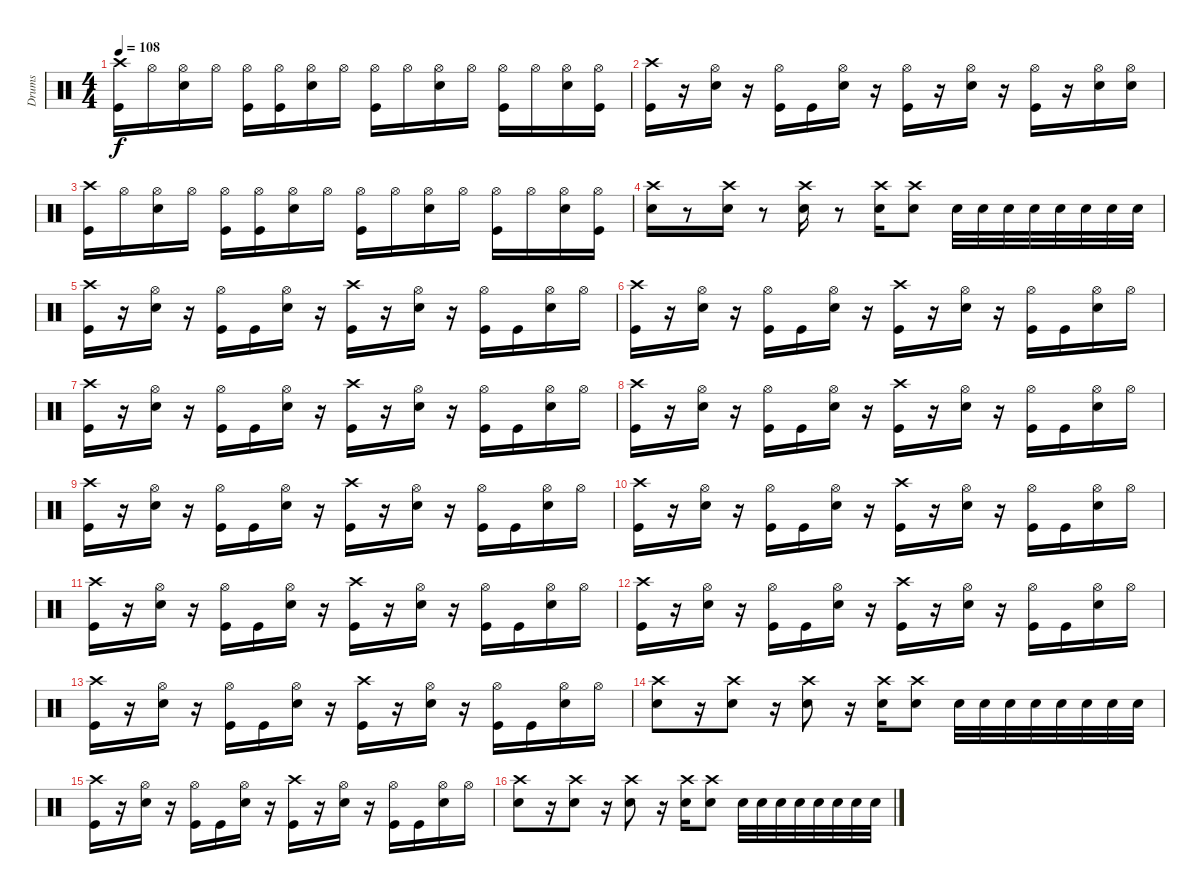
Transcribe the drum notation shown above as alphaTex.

\track ("Drums" "Drums") {instrument percussion}
\staff {score}
\articulation defaults
\ts (4 4)
\tempo 108
\clef neutral
\ks c
("Crash high (hit)" "Kick (hit)").16{dy f} "Hi-Hat (open)".16 ("Hi-Hat (open)" "Snare (hit) 2").16 "Hi-Hat (open)".16 ("Hi-Hat (open)" "Kick (hit)").16 ("Hi-Hat (open)" "Kick (hit)").16 ("Hi-Hat (open)" "Snare (hit) 2").16 "Hi-Hat (open)".16 ("Hi-Hat (open)" "Kick (hit)").16 "Hi-Hat (open)".16 ("Hi-Hat (open)" "Snare (hit) 2").16 "Hi-Hat (open)".16 ("Hi-Hat (open)" "Kick (hit)").16 "Hi-Hat (open)".16 ("Hi-Hat (open)" "Snare (hit) 2").16 ("Hi-Hat (open)" "Kick (hit)").16 |
("Crash high (hit)" "Kick (hit)").16 r.16 ("Hi-Hat (open)" "Snare (hit) 2").16 r.16 ("Hi-Hat (open)" "Kick (hit)").16 "Kick (hit)".16 ("Hi-Hat (open)" "Snare (hit) 2").16 r.16 ("Hi-Hat (open)" "Kick (hit)").16 r.16 ("Hi-Hat (open)" "Snare (hit) 2").16 r.16 ("Hi-Hat (open)" "Kick (hit)").16 r.16 ("Hi-Hat (open)" "Snare (hit) 2").16 ("Hi-Hat (open)" "Snare (hit) 2").16 |
("Crash high (hit)" "Kick (hit)").16 "Hi-Hat (open)".16 ("Hi-Hat (open)" "Snare (hit) 2").16 "Hi-Hat (open)".16 ("Hi-Hat (open)" "Kick (hit)").16 ("Hi-Hat (open)" "Kick (hit)").16 ("Hi-Hat (open)" "Snare (hit) 2").16 "Hi-Hat (open)".16 ("Hi-Hat (open)" "Kick (hit)").16 "Hi-Hat (open)".16 ("Hi-Hat (open)" "Snare (hit) 2").16 "Hi-Hat (open)".16 ("Hi-Hat (open)" "Kick (hit)").16 "Hi-Hat (open)".16 ("Hi-Hat (open)" "Snare (hit) 2").16 ("Hi-Hat (open)" "Kick (hit)").16 |
("Crash high (hit)" "Snare (hit) 2").16 r.8 ("Crash high (hit)" "Snare (hit) 2").16 r.8 ("Crash high (hit)" "Snare (hit) 2").16 r.8 ("Crash high (hit)" "Snare (hit) 2").16 ("Crash high (hit)" "Snare (hit) 2").8 "Snare (hit) 2".32 "Snare (hit) 2".32 "Snare (hit) 2".32 "Snare (hit) 2".32 "Snare (hit) 2".32 "Snare (hit) 2".32 "Snare (hit) 2".32 "Snare (hit) 2".32 |
("Crash high (hit)" "Kick (hit)").16 r.16 ("Hi-Hat (open)" "Snare (hit) 2").16 r.16 ("Hi-Hat (open)" "Kick (hit)").16 "Kick (hit)".16 ("Hi-Hat (open)" "Snare (hit) 2").16 r.16 ("Crash high (hit)" "Kick (hit)").16 r.16 ("Hi-Hat (open)" "Snare (hit) 2").16 r.16 ("Hi-Hat (open)" "Kick (hit)").16 "Kick (hit)".16 ("Hi-Hat (open)" "Snare (hit) 2").16 "Hi-Hat (open)".16 |
("Crash high (hit)" "Kick (hit)").16 r.16 ("Hi-Hat (open)" "Snare (hit) 2").16 r.16 ("Hi-Hat (open)" "Kick (hit)").16 "Kick (hit)".16 ("Hi-Hat (open)" "Snare (hit) 2").16 r.16 ("Crash high (hit)" "Kick (hit)").16 r.16 ("Hi-Hat (open)" "Snare (hit) 2").16 r.16 ("Hi-Hat (open)" "Kick (hit)").16 "Kick (hit)".16 ("Hi-Hat (open)" "Snare (hit) 2").16 "Hi-Hat (open)".16 |
("Crash high (hit)" "Kick (hit)").16 r.16 ("Hi-Hat (open)" "Snare (hit) 2").16 r.16 ("Hi-Hat (open)" "Kick (hit)").16 "Kick (hit)".16 ("Hi-Hat (open)" "Snare (hit) 2").16 r.16 ("Crash high (hit)" "Kick (hit)").16 r.16 ("Hi-Hat (open)" "Snare (hit) 2").16 r.16 ("Hi-Hat (open)" "Kick (hit)").16 "Kick (hit)".16 ("Hi-Hat (open)" "Snare (hit) 2").16 "Hi-Hat (open)".16 |
("Crash high (hit)" "Kick (hit)").16 r.16 ("Hi-Hat (open)" "Snare (hit) 2").16 r.16 ("Hi-Hat (open)" "Kick (hit)").16 "Kick (hit)".16 ("Hi-Hat (open)" "Snare (hit) 2").16 r.16 ("Crash high (hit)" "Kick (hit)").16 r.16 ("Hi-Hat (open)" "Snare (hit) 2").16 r.16 ("Hi-Hat (open)" "Kick (hit)").16 "Kick (hit)".16 ("Hi-Hat (open)" "Snare (hit) 2").16 "Hi-Hat (open)".16 |
("Crash high (hit)" "Kick (hit)").16 r.16 ("Hi-Hat (open)" "Snare (hit) 2").16 r.16 ("Hi-Hat (open)" "Kick (hit)").16 "Kick (hit)".16 ("Hi-Hat (open)" "Snare (hit) 2").16 r.16 ("Crash high (hit)" "Kick (hit)").16 r.16 ("Hi-Hat (open)" "Snare (hit) 2").16 r.16 ("Hi-Hat (open)" "Kick (hit)").16 "Kick (hit)".16 ("Hi-Hat (open)" "Snare (hit) 2").16 "Hi-Hat (open)".16 |
("Crash high (hit)" "Kick (hit)").16 r.16 ("Hi-Hat (open)" "Snare (hit) 2").16 r.16 ("Hi-Hat (open)" "Kick (hit)").16 "Kick (hit)".16 ("Hi-Hat (open)" "Snare (hit) 2").16 r.16 ("Crash high (hit)" "Kick (hit)").16 r.16 ("Hi-Hat (open)" "Snare (hit) 2").16 r.16 ("Hi-Hat (open)" "Kick (hit)").16 "Kick (hit)".16 ("Hi-Hat (open)" "Snare (hit) 2").16 "Hi-Hat (open)".16 |
("Crash high (hit)" "Kick (hit)").16 r.16 ("Hi-Hat (open)" "Snare (hit) 2").16 r.16 ("Hi-Hat (open)" "Kick (hit)").16 "Kick (hit)".16 ("Hi-Hat (open)" "Snare (hit) 2").16 r.16 ("Crash high (hit)" "Kick (hit)").16 r.16 ("Hi-Hat (open)" "Snare (hit) 2").16 r.16 ("Hi-Hat (open)" "Kick (hit)").16 "Kick (hit)".16 ("Hi-Hat (open)" "Snare (hit) 2").16 "Hi-Hat (open)".16 |
("Crash high (hit)" "Kick (hit)").16 r.16 ("Hi-Hat (open)" "Snare (hit) 2").16 r.16 ("Hi-Hat (open)" "Kick (hit)").16 "Kick (hit)".16 ("Hi-Hat (open)" "Snare (hit) 2").16 r.16 ("Crash high (hit)" "Kick (hit)").16 r.16 ("Hi-Hat (open)" "Snare (hit) 2").16 r.16 ("Hi-Hat (open)" "Kick (hit)").16 "Kick (hit)".16 ("Hi-Hat (open)" "Snare (hit) 2").16 "Hi-Hat (open)".16 |
("Crash high (hit)" "Kick (hit)").16 r.16 ("Hi-Hat (open)" "Snare (hit) 2").16 r.16 ("Hi-Hat (open)" "Kick (hit)").16 "Kick (hit)".16 ("Hi-Hat (open)" "Snare (hit) 2").16 r.16 ("Crash high (hit)" "Kick (hit)").16 r.16 ("Hi-Hat (open)" "Snare (hit) 2").16 r.16 ("Hi-Hat (open)" "Kick (hit)").16 "Kick (hit)".16 ("Hi-Hat (open)" "Snare (hit) 2").16 "Hi-Hat (open)".16 |
("Crash high (hit)" "Snare (hit) 2").8 r.16 ("Crash high (hit)" "Snare (hit) 2").8 r.16 ("Crash high (hit)" "Snare (hit) 2").8 r.16 ("Crash high (hit)" "Snare (hit) 2").16 ("Crash high (hit)" "Snare (hit) 2").8 "Snare (hit) 2".32 "Snare (hit) 2".32 "Snare (hit) 2".32 "Snare (hit) 2".32 "Snare (hit) 2".32 "Snare (hit) 2".32 "Snare (hit) 2".32 "Snare (hit) 2".32 |
("Crash high (hit)" "Kick (hit)").16 r.16 ("Hi-Hat (open)" "Snare (hit) 2").16 r.16 ("Hi-Hat (open)" "Kick (hit)").16 "Kick (hit)".16 ("Hi-Hat (open)" "Snare (hit) 2").16 r.16 ("Crash high (hit)" "Kick (hit)").16 r.16 ("Hi-Hat (open)" "Snare (hit) 2").16 r.16 ("Hi-Hat (open)" "Kick (hit)").16 "Kick (hit)".16 ("Hi-Hat (open)" "Snare (hit) 2").16 "Hi-Hat (open)".16 |
("Crash high (hit)" "Snare (hit) 2").8 r.16 ("Crash high (hit)" "Snare (hit) 2").8 r.16 ("Crash high (hit)" "Snare (hit) 2").8 r.16 ("Crash high (hit)" "Snare (hit) 2").16 ("Crash high (hit)" "Snare (hit) 2").8 "Snare (hit) 2".32 "Snare (hit) 2".32 "Snare (hit) 2".32 "Snare (hit) 2".32 "Snare (hit) 2".32 "Snare (hit) 2".32 "Snare (hit) 2".32 "Snare (hit) 2".32
